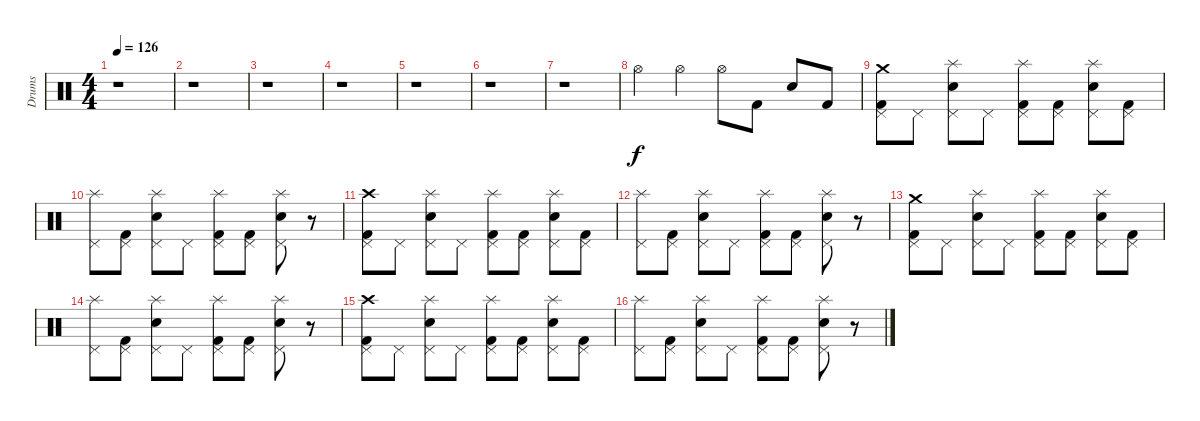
\track ("Drums" "Drums") {instrument percussion}
\staff {score}
\articulation defaults
\ts (4 4)
\tempo 126
\clef neutral
\ks c
r.1{dy f} |
r.1 |
r.1 |
r.1 |
r.1 |
r.1 |
r.1 |
"Hi-Hat (open)".4 "Hi-Hat (open)".4 "Hi-Hat (open)".8 "Kick (hit) 2".8 "Electric Snare (hit)".8 "Kick (hit) 2".8 |
("Pedal Hi-Hat (hit)" "Kick (hit) 2" "Crash medium (hit)").8 "Pedal Hi-Hat (hit)".8 ("Pedal Hi-Hat (hit)" "Splash (hit)" "Electric Snare (hit)").8 "Pedal Hi-Hat (hit)".8 ("Pedal Hi-Hat (hit)" "Splash (hit)" "Kick (hit) 2").8 ("Pedal Hi-Hat (hit)" "Kick (hit) 2").8 ("Pedal Hi-Hat (hit)" "Splash (hit)" "Electric Snare (hit)").8 ("Pedal Hi-Hat (hit)" "Kick (hit) 2").8 |
("Pedal Hi-Hat (hit)" "Splash (hit)").8 ("Pedal Hi-Hat (hit)" "Kick (hit) 2").8 ("Pedal Hi-Hat (hit)" "Splash (hit)" "Electric Snare (hit)").8 "Pedal Hi-Hat (hit)".8 ("Pedal Hi-Hat (hit)" "Splash (hit)" "Kick (hit) 2").8 ("Pedal Hi-Hat (hit)" "Kick (hit) 2").8 ("Pedal Hi-Hat (hit)" "Splash (hit)" "Electric Snare (hit)").8 r.8 |
("Pedal Hi-Hat (hit)" "Kick (hit) 2" "Crash high (hit)").8 "Pedal Hi-Hat (hit)".8 ("Pedal Hi-Hat (hit)" "Electric Snare (hit)" "Splash (hit)").8 "Pedal Hi-Hat (hit)".8 ("Pedal Hi-Hat (hit)" "Kick (hit) 2" "Splash (hit)").8 ("Kick (hit) 2" "Pedal Hi-Hat (hit)").8 ("Splash (hit)" "Electric Snare (hit)" "Pedal Hi-Hat (hit)").8 ("Pedal Hi-Hat (hit)" "Kick (hit) 2").8 |
("Splash (hit)" "Pedal Hi-Hat (hit)").8 ("Kick (hit) 2" "Pedal Hi-Hat (hit)").8 ("Splash (hit)" "Electric Snare (hit)" "Pedal Hi-Hat (hit)").8 "Pedal Hi-Hat (hit)".8 ("Splash (hit)" "Kick (hit) 2" "Pedal Hi-Hat (hit)").8 ("Pedal Hi-Hat (hit)" "Kick (hit) 2").8 ("Pedal Hi-Hat (hit)" "Electric Snare (hit)" "Splash (hit)").8 r.8 |
("Pedal Hi-Hat (hit)" "Kick (hit) 2" "Crash medium (hit)").8 "Pedal Hi-Hat (hit)".8 ("Pedal Hi-Hat (hit)" "Splash (hit)" "Electric Snare (hit)").8 "Pedal Hi-Hat (hit)".8 ("Pedal Hi-Hat (hit)" "Splash (hit)" "Kick (hit) 2").8 ("Pedal Hi-Hat (hit)" "Kick (hit) 2").8 ("Pedal Hi-Hat (hit)" "Splash (hit)" "Electric Snare (hit)").8 ("Pedal Hi-Hat (hit)" "Kick (hit) 2").8 |
("Pedal Hi-Hat (hit)" "Splash (hit)").8 ("Pedal Hi-Hat (hit)" "Kick (hit) 2").8 ("Pedal Hi-Hat (hit)" "Splash (hit)" "Electric Snare (hit)").8 "Pedal Hi-Hat (hit)".8 ("Pedal Hi-Hat (hit)" "Splash (hit)" "Kick (hit) 2").8 ("Pedal Hi-Hat (hit)" "Kick (hit) 2").8 ("Pedal Hi-Hat (hit)" "Splash (hit)" "Electric Snare (hit)").8 r.8 |
("Pedal Hi-Hat (hit)" "Kick (hit) 2" "Crash high (hit)").8 "Pedal Hi-Hat (hit)".8 ("Pedal Hi-Hat (hit)" "Electric Snare (hit)" "Splash (hit)").8 "Pedal Hi-Hat (hit)".8 ("Pedal Hi-Hat (hit)" "Kick (hit) 2" "Splash (hit)").8 ("Kick (hit) 2" "Pedal Hi-Hat (hit)").8 ("Splash (hit)" "Electric Snare (hit)" "Pedal Hi-Hat (hit)").8 ("Pedal Hi-Hat (hit)" "Kick (hit) 2").8 |
("Splash (hit)" "Pedal Hi-Hat (hit)").8 ("Kick (hit) 2" "Pedal Hi-Hat (hit)").8 ("Splash (hit)" "Electric Snare (hit)" "Pedal Hi-Hat (hit)").8 "Pedal Hi-Hat (hit)".8 ("Splash (hit)" "Kick (hit) 2" "Pedal Hi-Hat (hit)").8 ("Pedal Hi-Hat (hit)" "Kick (hit) 2").8 ("Pedal Hi-Hat (hit)" "Electric Snare (hit)" "Splash (hit)").8 r.8
